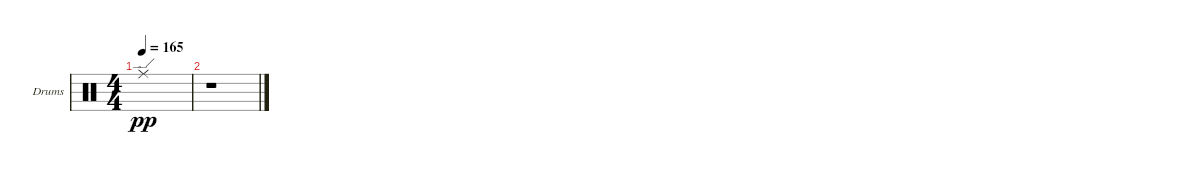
\defaultSystemsLayout 4
\bracketExtendMode groupsimilarinstruments
\firstSystemTrackNameOrientation horizontal
\otherSystemsTrackNameOrientation horizontal
\track ("Drumkit" "Drums") {instrument percussion}
\staff {score}
\articulation defaults
\ts (4 4)
\tempo 165
\clef neutral
\ks c "Ride (edge)".1{dy pp}
|
r.1
